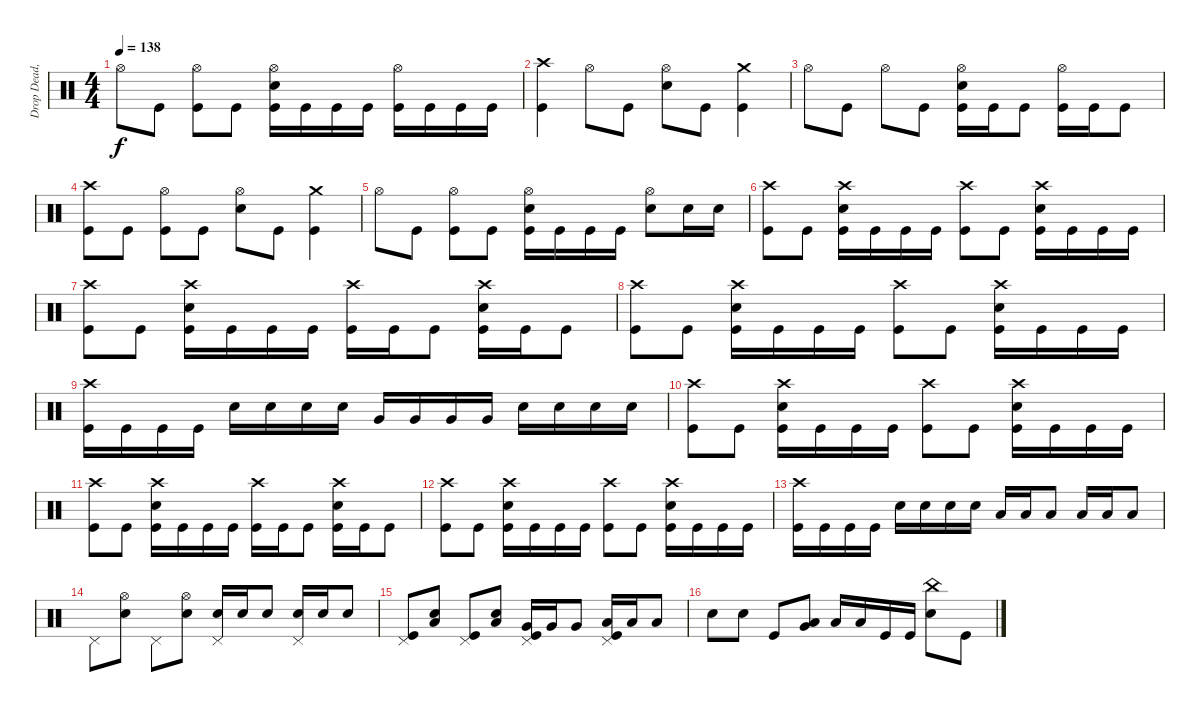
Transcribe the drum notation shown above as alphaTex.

\track ("Drop Dead, Johnny" "Drop Dead,") {instrument percussion}
\staff {score}
\articulation defaults
\ts (4 4)
\tempo 138
\clef neutral
\ks c "Hi-Hat (open)".8{dy f} "Kick (hit)".8
("Hi-Hat (open)" "Kick (hit)").8 "Kick (hit)".8 ("Hi-Hat (open)" "Electric Snare (hit)" "Kick (hit)").16 "Kick (hit)".16 "Kick (hit)".16 "Kick (hit)".16 ("Hi-Hat (open)" "Kick (hit)").16 "Kick (hit)".16 "Kick (hit)".16 "Kick (hit)".16 |
("Crash high (hit)" "Kick (hit)").4 "Hi-Hat (open)".8 "Kick (hit)".8 ("Hi-Hat (open)" "Electric Snare (hit)").8 "Kick (hit)".8 ("Crash medium (hit)" "Kick (hit)").4 |
"Hi-Hat (open)".8 "Kick (hit)".8 "Hi-Hat (open)".8 "Kick (hit)".8 ("Hi-Hat (open)" "Electric Snare (hit)" "Kick (hit)").16 "Kick (hit)".16 "Kick (hit)".8 ("Hi-Hat (open)" "Kick (hit)").16 "Kick (hit)".16 "Kick (hit)".8 |
("Crash high (hit)" "Kick (hit)").8 "Kick (hit)".8 ("Hi-Hat (open)" "Kick (hit)").8 "Kick (hit)".8 ("Hi-Hat (open)" "Electric Snare (hit)").8 "Kick (hit)".8 ("Crash medium (hit)" "Kick (hit)").4 |
"Hi-Hat (open)".8 "Kick (hit)".8 ("Hi-Hat (open)" "Kick (hit)").8 "Kick (hit)".8 ("Hi-Hat (open)" "Electric Snare (hit)" "Kick (hit)").16 "Kick (hit)".16 "Kick (hit)".16 "Kick (hit)".16 ("Hi-Hat (open)" "Electric Snare (hit)").8 "Electric Snare (hit)".16 "Electric Snare (hit)".16 |
("Crash high (hit)" "Kick (hit)").8 "Kick (hit)".8 ("Crash high (hit)" "Electric Snare (hit)" "Kick (hit)").16 "Kick (hit)".16 "Kick (hit)".16 "Kick (hit)".16 ("Crash high (hit)" "Kick (hit)").8 "Kick (hit)".8 ("Crash high (hit)" "Electric Snare (hit)" "Kick (hit)").16 "Kick (hit)".16 "Kick (hit)".16 "Kick (hit)".16 |
("Crash high (hit)" "Kick (hit)").8 "Kick (hit)".8 ("Crash high (hit)" "Electric Snare (hit)" "Kick (hit)").16 "Kick (hit)".16 "Kick (hit)".16 "Kick (hit)".16 ("Crash high (hit)" "Kick (hit)").16 "Kick (hit)".16 "Kick (hit)".8 ("Crash high (hit)" "Electric Snare (hit)" "Kick (hit)").16 "Kick (hit)".16 "Kick (hit)".8 |
("Crash high (hit)" "Kick (hit)").8 "Kick (hit)".8 ("Crash high (hit)" "Electric Snare (hit)" "Kick (hit)").16 "Kick (hit)".16 "Kick (hit)".16 "Kick (hit)".16 ("Crash high (hit)" "Kick (hit)").8 "Kick (hit)".8 ("Crash high (hit)" "Electric Snare (hit)" "Kick (hit)").16 "Kick (hit)".16 "Kick (hit)".16 "Kick (hit)".16 |
("Crash high (hit)" "Kick (hit)").16 "Kick (hit)".16 "Kick (hit)".16 "Kick (hit)".16 "Electric Snare (hit)".16 "Electric Snare (hit)".16 "Electric Snare (hit)".16 "Electric Snare (hit)".16 "Very Low Tom (hit)".16 "Very Low Tom (hit)".16 "Very Low Tom (hit)".16 "Very Low Tom (hit)".16 "Electric Snare (hit)".16 "Electric Snare (hit)".16 "Electric Snare (hit)".16 "Electric Snare (hit)".16 |
("Crash high (hit)" "Kick (hit)").8 "Kick (hit)".8 ("Crash high (hit)" "Electric Snare (hit)" "Kick (hit)").16 "Kick (hit)".16 "Kick (hit)".16 "Kick (hit)".16 ("Crash high (hit)" "Kick (hit)").8 "Kick (hit)".8 ("Crash high (hit)" "Electric Snare (hit)" "Kick (hit)").16 "Kick (hit)".16 "Kick (hit)".16 "Kick (hit)".16 |
("Crash high (hit)" "Kick (hit)").8 "Kick (hit)".8 ("Crash high (hit)" "Electric Snare (hit)" "Kick (hit)").16 "Kick (hit)".16 "Kick (hit)".16 "Kick (hit)".16 ("Crash high (hit)" "Kick (hit)").16 "Kick (hit)".16 "Kick (hit)".8 ("Crash high (hit)" "Electric Snare (hit)" "Kick (hit)").16 "Kick (hit)".16 "Kick (hit)".8 |
("Crash high (hit)" "Kick (hit)").8 "Kick (hit)".8 ("Crash high (hit)" "Electric Snare (hit)" "Kick (hit)").16 "Kick (hit)".16 "Kick (hit)".16 "Kick (hit)".16 ("Crash high (hit)" "Kick (hit)").8 "Kick (hit)".8 ("Crash high (hit)" "Electric Snare (hit)" "Kick (hit)").16 "Kick (hit)".16 "Kick (hit)".16 "Kick (hit)".16 |
("Crash high (hit)" "Kick (hit)").16 "Kick (hit)".16 "Kick (hit)".16 "Kick (hit)".16 "Electric Snare (hit)".16 "Electric Snare (hit)".16 "Electric Snare (hit)".16 "Electric Snare (hit)".16 "Low Floor Tom (hit)".16 "Low Floor Tom (hit)".16 "Low Floor Tom (hit)".8 "Low Floor Tom (hit)".16 "Low Floor Tom (hit)".16 "Low Floor Tom (hit)".8 |
"Pedal Hi-Hat (hit)".8 ("Hi-Hat (open)" "Electric Snare (hit)").8 "Pedal Hi-Hat (hit)".8 ("Hi-Hat (open)" "Electric Snare (hit)").8 ("Pedal Hi-Hat (hit)" "Electric Snare (hit)").16 "Electric Snare (hit)".16 "Electric Snare (hit)".8 ("Pedal Hi-Hat (hit)" "Electric Snare (hit)").16 "Electric Snare (hit)".16 "Electric Snare (hit)".8 |
("Pedal Hi-Hat (hit)" "Kick (hit)").8 ("Low Floor Tom (hit)" "Electric Snare (hit)").8 ("Pedal Hi-Hat (hit)" "Kick (hit)").8 ("Low Floor Tom (hit)" "Electric Snare (hit)").8 ("Pedal Hi-Hat (hit)" "Very Low Tom (hit)" "Kick (hit)").16 "Very Low Tom (hit)".16 "Very Low Tom (hit)".8 ("Pedal Hi-Hat (hit)" "Low Floor Tom (hit)" "Kick (hit)").16 "Low Floor Tom (hit)".16 "Low Floor Tom (hit)".8 |
"Electric Snare (hit)".8 "Electric Snare (hit)".8 "Kick (hit)".8 ("Very Low Tom (hit)" "Low Floor Tom (hit)").8 "Low Floor Tom (hit)".16 "Low Floor Tom (hit)".16 "Kick (hit)".16 "Kick (hit)".16 ("China (hit)" "Electric Snare (hit)").8 "Kick (hit)".8
